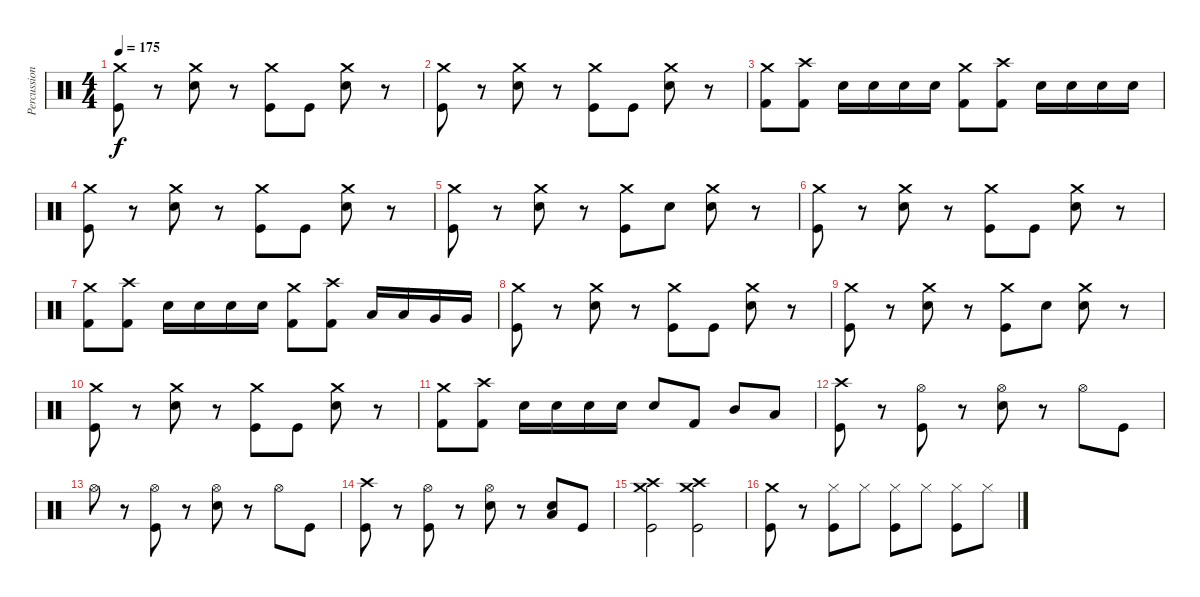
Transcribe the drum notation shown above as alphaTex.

\track ("Percussion" "Percussion") {instrument percussion}
\staff {score}
\articulation defaults
\ts (4 4)
\tempo 175
\clef neutral
\ks c
("Crash medium (hit)" "Kick (hit)").8{dy f} r.8 ("Crash medium (hit)" "Electric Snare (hit)").8 r.8 ("Crash medium (hit)" "Kick (hit)").8 "Kick (hit)".8 ("Crash medium (hit)" "Electric Snare (hit)").8 r.8 |
("Crash medium (hit)" "Kick (hit)").8 r.8 ("Crash medium (hit)" "Electric Snare (hit)").8 r.8 ("Crash medium (hit)" "Kick (hit)").8 "Kick (hit)".8 ("Crash medium (hit)" "Electric Snare (hit)").8 r.8 |
("Crash medium (hit)" "Kick (hit) 2").8 ("Crash high (hit)" "Kick (hit) 2").8 "Electric Snare (hit)".16 "Electric Snare (hit)".16 "Electric Snare (hit)".16 "Electric Snare (hit)".16 ("Crash medium (hit)" "Kick (hit) 2").8 ("Crash high (hit)" "Kick (hit) 2").8 "Electric Snare (hit)".16 "Electric Snare (hit)".16 "Electric Snare (hit)".16 "Electric Snare (hit)".16 |
("Crash medium (hit)" "Kick (hit)").8 r.8 ("Crash medium (hit)" "Electric Snare (hit)").8 r.8 ("Crash medium (hit)" "Kick (hit)").8 "Kick (hit)".8 ("Crash medium (hit)" "Electric Snare (hit)").8 r.8 |
("Crash medium (hit)" "Kick (hit)").8 r.8 ("Crash medium (hit)" "Electric Snare (hit)").8 r.8 ("Crash medium (hit)" "Kick (hit)").8 "Electric Snare (hit)".8 ("Crash medium (hit)" "Electric Snare (hit)").8 r.8 |
("Crash medium (hit)" "Kick (hit)").8 r.8 ("Crash medium (hit)" "Electric Snare (hit)").8 r.8 ("Crash medium (hit)" "Kick (hit)").8 "Kick (hit)".8 ("Crash medium (hit)" "Electric Snare (hit)").8 r.8 |
("Crash medium (hit)" "Kick (hit) 2").8 ("Crash high (hit)" "Kick (hit) 2").8 "Electric Snare (hit)".16 "Electric Snare (hit)".16 "Electric Snare (hit)".16 "Electric Snare (hit)".16 ("Crash medium (hit)" "Kick (hit) 2").8 ("Crash high (hit)" "Kick (hit) 2").8 "Low Tom (hit)".16 "Low Tom (hit)".16 "Very Low Tom (hit)".16 "Very Low Tom (hit)".16 |
("Crash medium (hit)" "Kick (hit)").8 r.8 ("Crash medium (hit)" "Electric Snare (hit)").8 r.8 ("Crash medium (hit)" "Kick (hit)").8 "Kick (hit)".8 ("Crash medium (hit)" "Electric Snare (hit)").8 r.8 |
("Crash medium (hit)" "Kick (hit)").8 r.8 ("Crash medium (hit)" "Electric Snare (hit)").8 r.8 ("Crash medium (hit)" "Kick (hit)").8 "Electric Snare (hit)".8 ("Crash medium (hit)" "Electric Snare (hit)").8 r.8 |
("Crash medium (hit)" "Kick (hit)").8 r.8 ("Crash medium (hit)" "Electric Snare (hit)").8 r.8 ("Crash medium (hit)" "Kick (hit)").8 "Kick (hit)".8 ("Crash medium (hit)" "Electric Snare (hit)").8 r.8 |
("Crash medium (hit)" "Kick (hit) 2").8 ("Crash high (hit)" "Kick (hit) 2").8 "Electric Snare (hit)".16 "Electric Snare (hit)".16 "Electric Snare (hit)".16 "Electric Snare (hit)".16 "Electric Snare (hit)".8 "Kick (hit) 2".8 "Mid Tom (hit)".8 "Low Tom (hit)".8 |
("Crash high (hit)" "Kick (hit)").8 r.8 ("Hi-Hat (open)" "Kick (hit)").8 r.8 ("Hi-Hat (open)" "Electric Snare (hit)").8 r.8 "Hi-Hat (open)".8 "Kick (hit)".8 |
"Hi-Hat (open)".8 r.8 ("Hi-Hat (open)" "Kick (hit)").8 r.8 ("Hi-Hat (open)" "Electric Snare (hit)").8 r.8 "Hi-Hat (open)".8 "Kick (hit)".8 |
("Crash high (hit)" "Kick (hit)").8 r.8 ("Hi-Hat (open)" "Kick (hit)").8 r.8 ("Hi-Hat (open)" "Electric Snare (hit)").8 r.8 ("Low Tom (hit)" "Electric Snare (hit)").8 "Kick (hit)".8 |
("Crash high (hit)" "Crash medium (hit)" "Kick (hit)").2 ("Crash high (hit)" "Crash medium (hit)" "Kick (hit)").2 |
("Crash medium (hit)" "Kick (hit)").8 r.8 ("Hi-Hat (closed)" "Kick (hit)").8 "Hi-Hat (closed)".8 ("Hi-Hat (closed)" "Kick (hit)").8 "Hi-Hat (closed)".8 ("Hi-Hat (closed)" "Kick (hit)").8 "Hi-Hat (closed)".8
